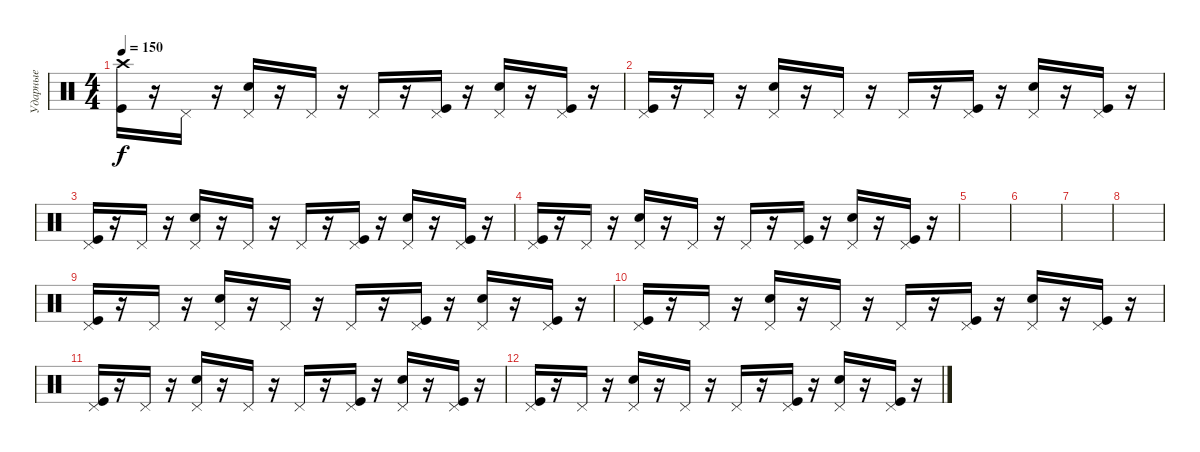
\track ("Ударные" "Ударные") {instrument percussion}
\staff {score}
\articulation defaults
\ts (4 4)
\tempo 150
\clef neutral
\ks c
("Crash high (hit)" "Kick (hit)").16{dy f} r.16 "Pedal Hi-Hat (hit)".16 r.16 ("Pedal Hi-Hat (hit)" "Snare (hit) 2").16 r.16 "Pedal Hi-Hat (hit)".16 r.16 "Pedal Hi-Hat (hit)".16 r.16 ("Pedal Hi-Hat (hit)" "Kick (hit)").16 r.16 ("Pedal Hi-Hat (hit)" "Snare (hit) 2").16 r.16 ("Pedal Hi-Hat (hit)" "Kick (hit)").16 r.16 |
("Pedal Hi-Hat (hit)" "Kick (hit)").16 r.16 "Pedal Hi-Hat (hit)".16 r.16 ("Pedal Hi-Hat (hit)" "Snare (hit) 2").16 r.16 "Pedal Hi-Hat (hit)".16 r.16 "Pedal Hi-Hat (hit)".16 r.16 ("Pedal Hi-Hat (hit)" "Kick (hit)").16 r.16 ("Pedal Hi-Hat (hit)" "Snare (hit) 2").16 r.16 ("Pedal Hi-Hat (hit)" "Kick (hit)").16 r.16 |
("Pedal Hi-Hat (hit)" "Kick (hit)").16 r.16 "Pedal Hi-Hat (hit)".16 r.16 ("Pedal Hi-Hat (hit)" "Snare (hit) 2").16 r.16 "Pedal Hi-Hat (hit)".16 r.16 "Pedal Hi-Hat (hit)".16 r.16 ("Pedal Hi-Hat (hit)" "Kick (hit)").16 r.16 ("Pedal Hi-Hat (hit)" "Snare (hit) 2").16 r.16 ("Pedal Hi-Hat (hit)" "Kick (hit)").16 r.16 |
("Pedal Hi-Hat (hit)" "Kick (hit)").16 r.16 "Pedal Hi-Hat (hit)".16 r.16 ("Pedal Hi-Hat (hit)" "Snare (hit) 2").16 r.16 "Pedal Hi-Hat (hit)".16 r.16 "Pedal Hi-Hat (hit)".16 r.16 ("Pedal Hi-Hat (hit)" "Kick (hit)").16 r.16 ("Pedal Hi-Hat (hit)" "Snare (hit) 2").16 r.16 ("Pedal Hi-Hat (hit)" "Kick (hit)").16 r.16 |
|
|
|
|
("Pedal Hi-Hat (hit)" "Kick (hit)").16 r.16 "Pedal Hi-Hat (hit)".16 r.16 ("Pedal Hi-Hat (hit)" "Snare (hit) 2").16 r.16 "Pedal Hi-Hat (hit)".16 r.16 "Pedal Hi-Hat (hit)".16 r.16 ("Pedal Hi-Hat (hit)" "Kick (hit)").16 r.16 ("Pedal Hi-Hat (hit)" "Snare (hit) 2").16 r.16 ("Pedal Hi-Hat (hit)" "Kick (hit)").16 r.16 |
("Pedal Hi-Hat (hit)" "Kick (hit)").16 r.16 "Pedal Hi-Hat (hit)".16 r.16 ("Pedal Hi-Hat (hit)" "Snare (hit) 2").16 r.16 "Pedal Hi-Hat (hit)".16 r.16 "Pedal Hi-Hat (hit)".16 r.16 ("Pedal Hi-Hat (hit)" "Kick (hit)").16 r.16 ("Pedal Hi-Hat (hit)" "Snare (hit) 2").16 r.16 ("Pedal Hi-Hat (hit)" "Kick (hit)").16 r.16 |
("Pedal Hi-Hat (hit)" "Kick (hit)").16 r.16 "Pedal Hi-Hat (hit)".16 r.16 ("Pedal Hi-Hat (hit)" "Snare (hit) 2").16 r.16 "Pedal Hi-Hat (hit)".16 r.16 "Pedal Hi-Hat (hit)".16 r.16 ("Pedal Hi-Hat (hit)" "Kick (hit)").16 r.16 ("Pedal Hi-Hat (hit)" "Snare (hit) 2").16 r.16 ("Pedal Hi-Hat (hit)" "Kick (hit)").16 r.16 |
("Pedal Hi-Hat (hit)" "Kick (hit)").16 r.16 "Pedal Hi-Hat (hit)".16 r.16 ("Pedal Hi-Hat (hit)" "Snare (hit) 2").16 r.16 "Pedal Hi-Hat (hit)".16 r.16 "Pedal Hi-Hat (hit)".16 r.16 ("Pedal Hi-Hat (hit)" "Kick (hit)").16 r.16 ("Pedal Hi-Hat (hit)" "Snare (hit) 2").16 r.16 ("Pedal Hi-Hat (hit)" "Kick (hit)").16 r.16
